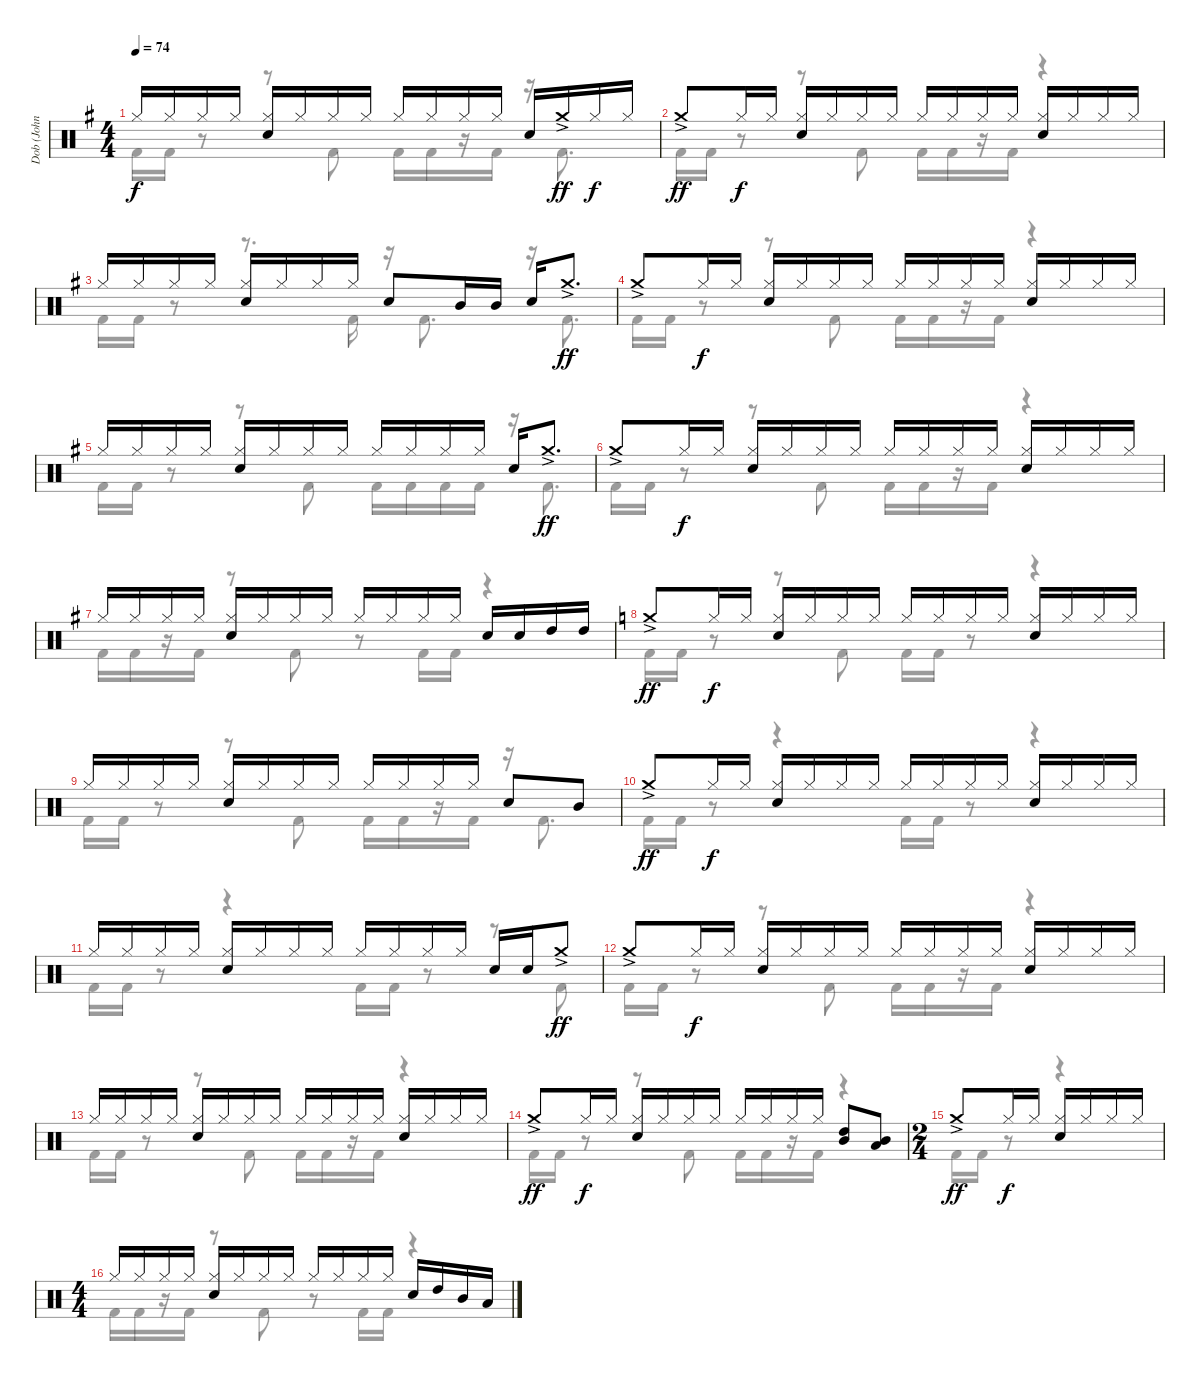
\track ("Dob (John O'Reilly)" "Dob (John ") {instrument percussion}
\staff {score}
\articulation defaults
\voice
\ts (4 4)
\tempo 74
\clef neutral
\ks g "Hi-Hat (closed)".16{dy f} "Hi-Hat (closed)".16 "Hi-Hat (closed)".16 "Hi-Hat (closed)".16
("Hi-Hat (closed)" "Electric Snare (hit)").16 "Hi-Hat (closed)".16 "Hi-Hat (closed)".16 "Hi-Hat (closed)".16 "Hi-Hat (closed)".16 "Hi-Hat (closed)".16 "Hi-Hat (closed)".16 "Hi-Hat (closed)".16 "Electric Snare (hit)".16 "Crash medium (hit)"{ac}.16{dy ff} "Hi-Hat (closed)".16{dy f} "Hi-Hat (closed)".16 |
"Crash medium (hit)"{ac}.8{dy ff} "Hi-Hat (closed)".16{dy f} "Hi-Hat (closed)".16 ("Hi-Hat (closed)" "Electric Snare (hit)").16 "Hi-Hat (closed)".16 "Hi-Hat (closed)".16 "Hi-Hat (closed)".16 "Hi-Hat (closed)".16 "Hi-Hat (closed)".16 "Hi-Hat (closed)".16 "Hi-Hat (closed)".16 ("Hi-Hat (closed)" "Electric Snare (hit)").16 "Hi-Hat (closed)".16 "Hi-Hat (closed)".16 "Hi-Hat (closed)".16 |
"Hi-Hat (closed)".16 "Hi-Hat (closed)".16 "Hi-Hat (closed)".16 "Hi-Hat (closed)".16 ("Hi-Hat (closed)" "Electric Snare (hit)").16 "Hi-Hat (closed)".16 "Hi-Hat (closed)".16 "Hi-Hat (closed)".16 "Electric Snare (hit)".8 "Mid Tom (hit)".16 "Mid Tom (hit)".16 "Electric Snare (hit)".16 "Crash medium (hit)"{ac}.8{d dy ff} |
"Crash medium (hit)"{ac}.8 "Hi-Hat (closed)".16{dy f} "Hi-Hat (closed)".16 ("Hi-Hat (closed)" "Electric Snare (hit)").16 "Hi-Hat (closed)".16 "Hi-Hat (closed)".16 "Hi-Hat (closed)".16 "Hi-Hat (closed)".16 "Hi-Hat (closed)".16 "Hi-Hat (closed)".16 "Hi-Hat (closed)".16 ("Hi-Hat (closed)" "Electric Snare (hit)").16 "Hi-Hat (closed)".16 "Hi-Hat (closed)".16 "Hi-Hat (closed)".16 |
"Hi-Hat (closed)".16 "Hi-Hat (closed)".16 "Hi-Hat (closed)".16 "Hi-Hat (closed)".16 ("Hi-Hat (closed)" "Electric Snare (hit)").16 "Hi-Hat (closed)".16 "Hi-Hat (closed)".16 "Hi-Hat (closed)".16 "Hi-Hat (closed)".16 "Hi-Hat (closed)".16 "Hi-Hat (closed)".16 "Hi-Hat (closed)".16 "Electric Snare (hit)".16 "Crash medium (hit)"{ac}.8{d dy ff} |
"Crash medium (hit)"{ac}.8 "Hi-Hat (closed)".16{dy f} "Hi-Hat (closed)".16 ("Hi-Hat (closed)" "Electric Snare (hit)").16 "Hi-Hat (closed)".16 "Hi-Hat (closed)".16 "Hi-Hat (closed)".16 "Hi-Hat (closed)".16 "Hi-Hat (closed)".16 "Hi-Hat (closed)".16 "Hi-Hat (closed)".16 ("Hi-Hat (closed)" "Electric Snare (hit)").16 "Hi-Hat (closed)".16 "Hi-Hat (closed)".16 "Hi-Hat (closed)".16 |
"Hi-Hat (closed)".16 "Hi-Hat (closed)".16 "Hi-Hat (closed)".16 "Hi-Hat (closed)".16 ("Hi-Hat (closed)" "Electric Snare (hit)").16 "Hi-Hat (closed)".16 "Hi-Hat (closed)".16 "Hi-Hat (closed)".16 "Hi-Hat (closed)".16 "Hi-Hat (closed)".16 "Hi-Hat (closed)".16 "Hi-Hat (closed)".16 "Electric Snare (hit)".16 "Electric Snare (hit)".16 "High Tom (hit)".16 "High Tom (hit)".16 |
\ks c "Crash medium (hit)"{ac}.8{dy ff} "Hi-Hat (closed)".16{dy f} "Hi-Hat (closed)".16
("Hi-Hat (closed)" "Electric Snare (hit)").16 "Hi-Hat (closed)".16 "Hi-Hat (closed)".16 "Hi-Hat (closed)".16 "Hi-Hat (closed)".16 "Hi-Hat (closed)".16 "Hi-Hat (closed)".16 "Hi-Hat (closed)".16 ("Hi-Hat (closed)" "Electric Snare (hit)").16 "Hi-Hat (closed)".16 "Hi-Hat (closed)".16 "Hi-Hat (closed)".16 |
"Hi-Hat (closed)".16 "Hi-Hat (closed)".16 "Hi-Hat (closed)".16 "Hi-Hat (closed)".16 ("Hi-Hat (closed)" "Electric Snare (hit)").16 "Hi-Hat (closed)".16 "Hi-Hat (closed)".16 "Hi-Hat (closed)".16 "Hi-Hat (closed)".16 "Hi-Hat (closed)".16 "Hi-Hat (closed)".16 "Hi-Hat (closed)".16 "Electric Snare (hit)".8 "Mid Tom (hit)".8 |
"Crash medium (hit)"{ac}.8{dy ff} "Hi-Hat (closed)".16{dy f} "Hi-Hat (closed)".16 ("Hi-Hat (closed)" "Electric Snare (hit)").16 "Hi-Hat (closed)".16 "Hi-Hat (closed)".16 "Hi-Hat (closed)".16 "Hi-Hat (closed)".16 "Hi-Hat (closed)".16 "Hi-Hat (closed)".16 "Hi-Hat (closed)".16 ("Hi-Hat (closed)" "Electric Snare (hit)").16 "Hi-Hat (closed)".16 "Hi-Hat (closed)".16 "Hi-Hat (closed)".16 |
"Hi-Hat (closed)".16 "Hi-Hat (closed)".16 "Hi-Hat (closed)".16 "Hi-Hat (closed)".16 ("Hi-Hat (closed)" "Electric Snare (hit)").16 "Hi-Hat (closed)".16 "Hi-Hat (closed)".16 "Hi-Hat (closed)".16 "Hi-Hat (closed)".16 "Hi-Hat (closed)".16 "Hi-Hat (closed)".16 "Hi-Hat (closed)".16 "Electric Snare (hit)".16 "Electric Snare (hit)".16 "Crash medium (hit)"{ac}.8{dy ff} |
"Crash medium (hit)"{ac}.8 "Hi-Hat (closed)".16{dy f} "Hi-Hat (closed)".16 ("Hi-Hat (closed)" "Electric Snare (hit)").16 "Hi-Hat (closed)".16 "Hi-Hat (closed)".16 "Hi-Hat (closed)".16 "Hi-Hat (closed)".16 "Hi-Hat (closed)".16 "Hi-Hat (closed)".16 "Hi-Hat (closed)".16 ("Hi-Hat (closed)" "Electric Snare (hit)").16 "Hi-Hat (closed)".16 "Hi-Hat (closed)".16 "Hi-Hat (closed)".16 |
"Hi-Hat (closed)".16 "Hi-Hat (closed)".16 "Hi-Hat (closed)".16 "Hi-Hat (closed)".16 ("Hi-Hat (closed)" "Electric Snare (hit)").16 "Hi-Hat (closed)".16 "Hi-Hat (closed)".16 "Hi-Hat (closed)".16 "Hi-Hat (closed)".16 "Hi-Hat (closed)".16 "Hi-Hat (closed)".16 "Hi-Hat (closed)".16 ("Hi-Hat (closed)" "Electric Snare (hit)").16 "Hi-Hat (closed)".16 "Hi-Hat (closed)".16 "Hi-Hat (closed)".16 |
"Crash medium (hit)"{ac}.8{dy ff} "Hi-Hat (closed)".16{dy f} "Hi-Hat (closed)".16 ("Hi-Hat (closed)" "Electric Snare (hit)").16 "Hi-Hat (closed)".16 "Hi-Hat (closed)".16 "Hi-Hat (closed)".16 "Hi-Hat (closed)".16 "Hi-Hat (closed)".16 "Hi-Hat (closed)".16 "Hi-Hat (closed)".16 ("High Tom (hit)" "Mid Tom (hit)").8 ("Mid Tom (hit)" "Low Tom (hit)").8 |
\ts (2 4)
"Crash medium (hit)"{ac}.8{dy ff} "Hi-Hat (closed)".16{dy f} "Hi-Hat (closed)".16 ("Hi-Hat (closed)" "Electric Snare (hit)").16 "Hi-Hat (closed)".16 "Hi-Hat (closed)".16 "Hi-Hat (closed)".16 |
\ts (4 4)
"Hi-Hat (closed)".16 "Hi-Hat (closed)".16 "Hi-Hat (closed)".16 "Hi-Hat (closed)".16 ("Hi-Hat (closed)" "Electric Snare (hit)").16 "Hi-Hat (closed)".16 "Hi-Hat (closed)".16 "Hi-Hat (closed)".16 "Hi-Hat (closed)".16 "Hi-Hat (closed)".16 "Hi-Hat (closed)".16 "Hi-Hat (closed)".16 "Electric Snare (hit)".16 "High Tom (hit)".16 "Mid Tom (hit)".16 "Low Tom (hit)".16
\voice
\clef neutral
\ottava regular
\simile none
\ks g "Kick (hit) 2".16{dy f} "Kick (hit) 2".16
r.8 r.8 "Kick (hit) 2".8 "Kick (hit) 2".16 "Kick (hit) 2".16 r.16 "Kick (hit) 2".16 r.16 "Kick (hit) 2".8{d} |
"Kick (hit) 2".16 "Kick (hit) 2".16 r.8 r.8 "Kick (hit) 2".8 "Kick (hit) 2".16 "Kick (hit) 2".16 r.16 "Kick (hit) 2".16 r.4 |
"Kick (hit) 2".16 "Kick (hit) 2".16 r.8 r.8{d} "Kick (hit) 2".16 r.16 "Kick (hit) 2".8{d} r.16 "Kick (hit) 2".8{d} |
"Kick (hit) 2".16 "Kick (hit) 2".16 r.8 r.8 "Kick (hit) 2".8 "Kick (hit) 2".16 "Kick (hit) 2".16 r.16 "Kick (hit) 2".16 r.4 |
"Kick (hit) 2".16 "Kick (hit) 2".16 r.8 r.8 "Kick (hit) 2".8 "Kick (hit) 2".16 "Kick (hit) 2".16 "Kick (hit) 2".16 "Kick (hit) 2".16 r.16 "Kick (hit) 2".8{d} |
"Kick (hit) 2".16 "Kick (hit) 2".16 r.8 r.8 "Kick (hit) 2".8 "Kick (hit) 2".16 "Kick (hit) 2".16 r.16 "Kick (hit) 2".16 r.4 |
"Kick (hit) 2".16 "Kick (hit) 2".16 r.16 "Kick (hit) 2".16 r.8 "Kick (hit) 2".8 r.8 "Kick (hit) 2".16 "Kick (hit) 2".16 r.4 |
\ks c "Kick (hit) 2".16 "Kick (hit) 2".16
r.8 r.8 "Kick (hit) 2".8 "Kick (hit) 2".16 "Kick (hit) 2".16 r.8 r.4 |
"Kick (hit) 2".16 "Kick (hit) 2".16 r.8 r.8 "Kick (hit) 2".8 "Kick (hit) 2".16 "Kick (hit) 2".16 r.16 "Kick (hit) 2".16 r.16 "Kick (hit) 2".8{d} |
"Kick (hit) 2".16 "Kick (hit) 2".16 r.8 r.4 "Kick (hit) 2".16 "Kick (hit) 2".16 r.8 r.4 |
"Kick (hit) 2".16 "Kick (hit) 2".16 r.8 r.4 "Kick (hit) 2".16 "Kick (hit) 2".16 r.8 r.8 "Kick (hit) 2".8 |
"Kick (hit) 2".16 "Kick (hit) 2".16 r.8 r.8 "Kick (hit) 2".8 "Kick (hit) 2".16 "Kick (hit) 2".16 r.16 "Kick (hit) 2".16 r.4 |
"Kick (hit) 2".16 "Kick (hit) 2".16 r.8 r.8 "Kick (hit) 2".8 "Kick (hit) 2".16 "Kick (hit) 2".16 r.16 "Kick (hit) 2".16 r.4 |
"Kick (hit) 2".16 "Kick (hit) 2".16 r.8 r.8 "Kick (hit) 2".8 "Kick (hit) 2".16 "Kick (hit) 2".16 r.16 "Kick (hit) 2".16 r.4 |
"Kick (hit) 2".16 "Kick (hit) 2".16 r.8 r.4 |
"Kick (hit) 2".16 "Kick (hit) 2".16 r.16 "Kick (hit) 2".16 r.8 "Kick (hit) 2".8 r.8 "Kick (hit) 2".16 "Kick (hit) 2".16 r.4
